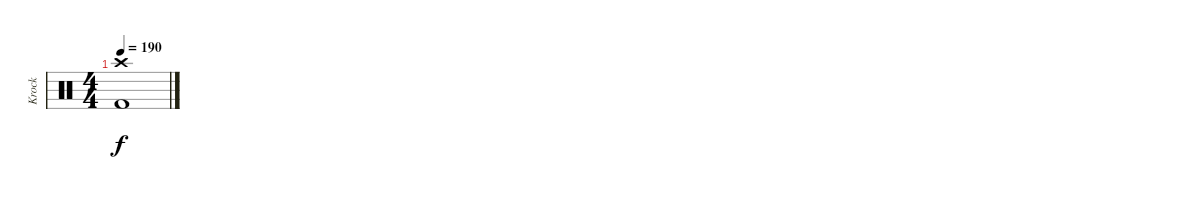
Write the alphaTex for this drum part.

\track ("Krock" "Krock") {instrument percussion}
\staff {score}
\articulation defaults
\ts (4 4)
\tempo 190
\clef neutral
\ks c
("Crash high (hit)" "Kick (hit) 2").1{dy f}
